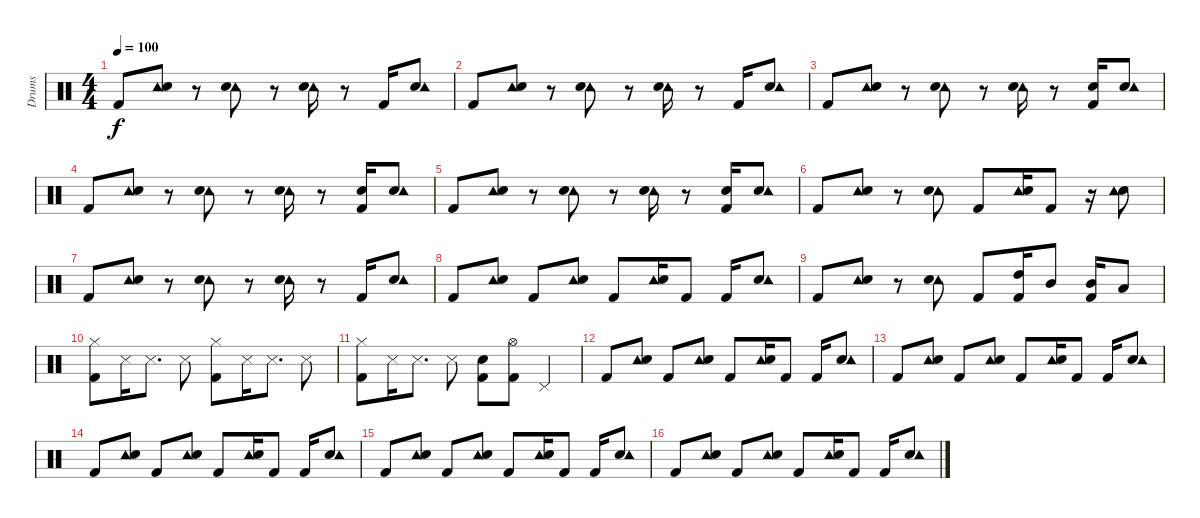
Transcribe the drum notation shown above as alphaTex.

\track ("Drums" "Drums") {instrument percussion}
\staff {score}
\articulation defaults
\ts (4 4)
\tempo 100
\clef neutral
\ks c "Kick (hit) 2".8{dy f}
("Tambourine (hit)" "Electric Snare (hit)").8 r.8 ("Tambourine (hit)" "Electric Snare (hit)").8 r.8 ("Tambourine (hit)" "Electric Snare (hit)").16 r.8 "Kick (hit) 2".16 ("Electric Snare (hit)" "Tambourine (hit)").8 |
"Kick (hit) 2".8 ("Tambourine (hit)" "Electric Snare (hit)").8 r.8 ("Tambourine (hit)" "Electric Snare (hit)").8 r.8 ("Tambourine (hit)" "Electric Snare (hit)").16 r.8 "Kick (hit) 2".16 ("Electric Snare (hit)" "Tambourine (hit)").8 |
"Kick (hit) 2".8 ("Tambourine (hit)" "Electric Snare (hit)").8 r.8 ("Tambourine (hit)" "Electric Snare (hit)").8 r.8 ("Tambourine (hit)" "Electric Snare (hit)").16 r.8 ("Kick (hit) 2" "Electric Snare (hit)").16 ("Electric Snare (hit)" "Tambourine (hit)").8 |
"Kick (hit) 2".8 ("Tambourine (hit)" "Electric Snare (hit)").8 r.8 ("Tambourine (hit)" "Electric Snare (hit)").8 r.8 ("Tambourine (hit)" "Electric Snare (hit)").16 r.8 ("Kick (hit) 2" "Electric Snare (hit)").16 ("Electric Snare (hit)" "Tambourine (hit)").8 |
"Kick (hit) 2".8 ("Tambourine (hit)" "Electric Snare (hit)").8 r.8 ("Tambourine (hit)" "Electric Snare (hit)").8 r.8 ("Tambourine (hit)" "Electric Snare (hit)").16 r.8 ("Kick (hit) 2" "Electric Snare (hit)").16 ("Electric Snare (hit)" "Tambourine (hit)").8 |
"Kick (hit) 2".8 ("Tambourine (hit)" "Electric Snare (hit)").8 r.8 ("Tambourine (hit)" "Electric Snare (hit)").8 "Kick (hit) 2".8 ("Tambourine (hit)" "Electric Snare (hit)").16 "Kick (hit) 2".8 r.16 ("Electric Snare (hit)" "Tambourine (hit)").8 |
"Kick (hit) 2".8 ("Tambourine (hit)" "Electric Snare (hit)").8 r.8 ("Tambourine (hit)" "Electric Snare (hit)").8 r.8 ("Tambourine (hit)" "Electric Snare (hit)").16 r.8 "Kick (hit) 2".16 ("Electric Snare (hit)" "Tambourine (hit)").8 |
"Kick (hit) 2".8 ("Tambourine (hit)" "Electric Snare (hit)").8 "Kick (hit) 2".8 ("Tambourine (hit)" "Electric Snare (hit)").8 "Kick (hit) 2".8 ("Tambourine (hit)" "Electric Snare (hit)").16 "Kick (hit) 2".8 "Kick (hit) 2".16 ("Electric Snare (hit)" "Tambourine (hit)").8 |
"Kick (hit) 2".8 ("Tambourine (hit)" "Electric Snare (hit)").8 r.8 ("Tambourine (hit)" "Electric Snare (hit)").8 "Kick (hit) 2".8 ("High Tom (hit)" "Kick (hit) 2").16 "Mid Tom (hit)".8 ("Mid Tom (hit)" "Kick (hit) 2").16 "Low Tom (hit)".8 |
("Hi-Hat (closed)" "Kick (hit) 2").8 "Snare (side stick) 3".16 "Snare (side stick) 3".8{d} "Snare (side stick) 3".8 ("Hi-Hat (closed)" "Kick (hit) 2").8 "Snare (side stick) 3".16 "Snare (side stick) 3".8{d} "Snare (side stick) 3".8 |
("Hi-Hat (closed)" "Kick (hit) 2").8 "Snare (side stick) 3".16 "Snare (side stick) 3".8{d} "Snare (side stick) 3".8 ("Kick (hit) 2" "Electric Snare (hit)").8 ("Kick (hit) 2" "Hi-Hat (open)").8 "Pedal Hi-Hat (hit)".4 |
"Kick (hit) 2".8 ("Tambourine (hit)" "Electric Snare (hit)").8 "Kick (hit) 2".8 ("Tambourine (hit)" "Electric Snare (hit)").8 "Kick (hit) 2".8 ("Tambourine (hit)" "Electric Snare (hit)").16 "Kick (hit) 2".8 "Kick (hit) 2".16 ("Electric Snare (hit)" "Tambourine (hit)").8 |
"Kick (hit) 2".8 ("Tambourine (hit)" "Electric Snare (hit)").8 "Kick (hit) 2".8 ("Tambourine (hit)" "Electric Snare (hit)").8 "Kick (hit) 2".8 ("Tambourine (hit)" "Electric Snare (hit)").16 "Kick (hit) 2".8 "Kick (hit) 2".16 ("Electric Snare (hit)" "Tambourine (hit)").8 |
"Kick (hit) 2".8 ("Tambourine (hit)" "Electric Snare (hit)").8 "Kick (hit) 2".8 ("Tambourine (hit)" "Electric Snare (hit)").8 "Kick (hit) 2".8 ("Tambourine (hit)" "Electric Snare (hit)").16 "Kick (hit) 2".8 "Kick (hit) 2".16 ("Electric Snare (hit)" "Tambourine (hit)").8 |
"Kick (hit) 2".8 ("Tambourine (hit)" "Electric Snare (hit)").8 "Kick (hit) 2".8 ("Tambourine (hit)" "Electric Snare (hit)").8 "Kick (hit) 2".8 ("Tambourine (hit)" "Electric Snare (hit)").16 "Kick (hit) 2".8 "Kick (hit) 2".16 ("Electric Snare (hit)" "Tambourine (hit)").8 |
"Kick (hit) 2".8 ("Tambourine (hit)" "Electric Snare (hit)").8 "Kick (hit) 2".8 ("Tambourine (hit)" "Electric Snare (hit)").8 "Kick (hit) 2".8 ("Tambourine (hit)" "Electric Snare (hit)").16 "Kick (hit) 2".8 "Kick (hit) 2".16 ("Electric Snare (hit)" "Tambourine (hit)").8
